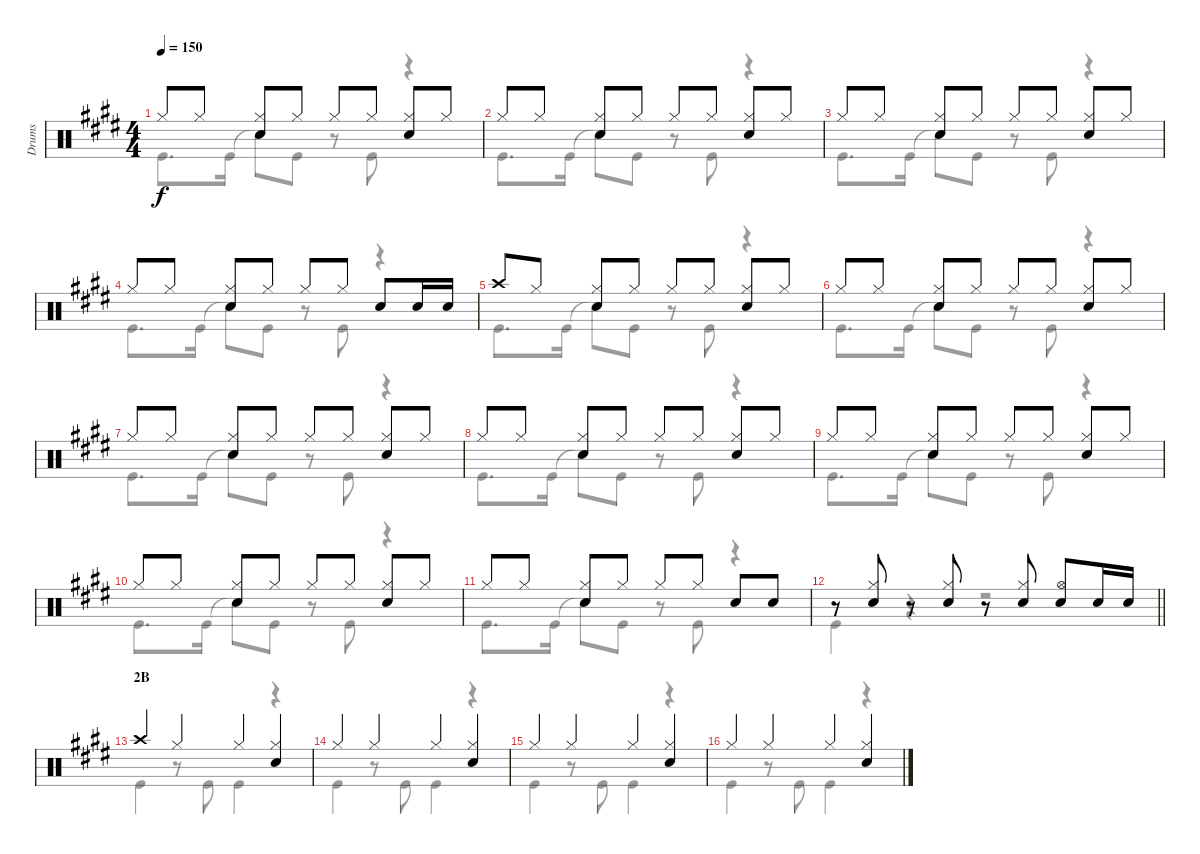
\track ("Drums" "Drums") {instrument percussion}
\staff {score}
\articulation defaults
\voice
\ts (4 4)
\tempo 150
\clef neutral
\ks e "Hi-Hat (closed)".8{dy f} "Hi-Hat (closed)".8
("Hi-Hat (closed)" "Snare (hit) 2").8 "Hi-Hat (closed)".8 "Hi-Hat (closed)".8 "Hi-Hat (closed)".8 ("Hi-Hat (closed)" "Snare (hit) 2").8 "Hi-Hat (closed)".8 |
"Hi-Hat (closed)".8 "Hi-Hat (closed)".8 ("Hi-Hat (closed)" "Snare (hit) 2").8 "Hi-Hat (closed)".8 "Hi-Hat (closed)".8 "Hi-Hat (closed)".8 ("Hi-Hat (closed)" "Snare (hit) 2").8 "Hi-Hat (closed)".8 |
"Hi-Hat (closed)".8 "Hi-Hat (closed)".8 ("Hi-Hat (closed)" "Snare (hit) 2").8 "Hi-Hat (closed)".8 "Hi-Hat (closed)".8 "Hi-Hat (closed)".8 ("Hi-Hat (closed)" "Snare (hit) 2").8 "Hi-Hat (closed)".8 |
"Hi-Hat (closed)".8 "Hi-Hat (closed)".8 ("Hi-Hat (closed)" "Snare (hit) 2").8 "Hi-Hat (closed)".8 "Hi-Hat (closed)".8 "Hi-Hat (closed)".8 "Snare (hit) 2".8 "Snare (hit) 2".16 "Snare (hit) 2".16 |
"Crash high (hit)".8 "Hi-Hat (closed)".8 ("Hi-Hat (closed)" "Snare (hit) 2").8 "Hi-Hat (closed)".8 "Hi-Hat (closed)".8 "Hi-Hat (closed)".8 ("Hi-Hat (closed)" "Snare (hit) 2").8 "Hi-Hat (closed)".8 |
"Hi-Hat (closed)".8 "Hi-Hat (closed)".8 ("Hi-Hat (closed)" "Snare (hit) 2").8 "Hi-Hat (closed)".8 "Hi-Hat (closed)".8 "Hi-Hat (closed)".8 ("Hi-Hat (closed)" "Snare (hit) 2").8 "Hi-Hat (closed)".8 |
"Hi-Hat (closed)".8 "Hi-Hat (closed)".8 ("Hi-Hat (closed)" "Snare (hit) 2").8 "Hi-Hat (closed)".8 "Hi-Hat (closed)".8 "Hi-Hat (closed)".8 ("Hi-Hat (closed)" "Snare (hit) 2").8 "Hi-Hat (closed)".8 |
"Hi-Hat (closed)".8 "Hi-Hat (closed)".8 ("Hi-Hat (closed)" "Snare (hit) 2").8 "Hi-Hat (closed)".8 "Hi-Hat (closed)".8 "Hi-Hat (closed)".8 ("Hi-Hat (closed)" "Snare (hit) 2").8 "Hi-Hat (closed)".8 |
"Hi-Hat (closed)".8 "Hi-Hat (closed)".8 ("Hi-Hat (closed)" "Snare (hit) 2").8 "Hi-Hat (closed)".8 "Hi-Hat (closed)".8 "Hi-Hat (closed)".8 ("Hi-Hat (closed)" "Snare (hit) 2").8 "Hi-Hat (closed)".8 |
"Hi-Hat (closed)".8 "Hi-Hat (closed)".8 ("Hi-Hat (closed)" "Snare (hit) 2").8 "Hi-Hat (closed)".8 "Hi-Hat (closed)".8 "Hi-Hat (closed)".8 ("Hi-Hat (closed)" "Snare (hit) 2").8 "Hi-Hat (closed)".8 |
"Hi-Hat (closed)".8 "Hi-Hat (closed)".8 ("Hi-Hat (closed)" "Snare (hit) 2").8 "Hi-Hat (closed)".8 "Hi-Hat (closed)".8 "Hi-Hat (closed)".8 "Snare (hit) 2".8 "Snare (hit) 2".8 |
\barLineRight lightlight
r.8 ("Hi-Hat (closed)" "Snare (hit) 2").8 r.8 ("Hi-Hat (closed)" "Snare (hit) 2").8 r.8 ("Hi-Hat (closed)" "Snare (hit) 2").8 ("Hi-Hat (open)" "Snare (hit) 2").8 "Snare (hit) 2".16 "Snare (hit) 2".16 |
\section ("" "2B")
"Crash high (hit)".4 "Hi-Hat (closed)".4 "Hi-Hat (closed)".4 ("Hi-Hat (closed)" "Snare (hit) 2").4 |
"Hi-Hat (closed)".4 "Hi-Hat (closed)".4 "Hi-Hat (closed)".4 ("Hi-Hat (closed)" "Snare (hit) 2").4 |
"Hi-Hat (closed)".4 "Hi-Hat (closed)".4 "Hi-Hat (closed)".4 ("Hi-Hat (closed)" "Snare (hit) 2").4 |
"Hi-Hat (closed)".4 "Hi-Hat (closed)".4 "Hi-Hat (closed)".4 ("Hi-Hat (closed)" "Snare (hit) 2").4
\voice
\clef neutral
\ottava regular
\simile none
\ks e "Kick (hit)".8{d dy f} "Kick (hit)".16 "Snare (hit)"{t}.8 "Kick (hit)".8
r.8 "Kick (hit)".8 r.4 |
"Kick (hit)".8{d} "Kick (hit)".16 "Snare (hit)"{t}.8 "Kick (hit)".8 r.8 "Kick (hit)".8 r.4 |
"Kick (hit)".8{d} "Kick (hit)".16 "Snare (hit)"{t}.8 "Kick (hit)".8 r.8 "Kick (hit)".8 r.4 |
"Kick (hit)".8{d} "Kick (hit)".16 "Snare (hit)"{t}.8 "Kick (hit)".8 r.8 "Kick (hit)".8 r.4 |
"Kick (hit)".8{d} "Kick (hit)".16 "Snare (hit)"{t}.8 "Kick (hit)".8 r.8 "Kick (hit)".8 r.4 |
"Kick (hit)".8{d} "Kick (hit)".16 "Snare (hit)"{t}.8 "Kick (hit)".8 r.8 "Kick (hit)".8 r.4 |
"Kick (hit)".8{d} "Kick (hit)".16 "Snare (hit)"{t}.8 "Kick (hit)".8 r.8 "Kick (hit)".8 r.4 |
"Kick (hit)".8{d} "Kick (hit)".16 "Snare (hit)"{t}.8 "Kick (hit)".8 r.8 "Kick (hit)".8 r.4 |
"Kick (hit)".8{d} "Kick (hit)".16 "Snare (hit)"{t}.8 "Kick (hit)".8 r.8 "Kick (hit)".8 r.4 |
"Kick (hit)".8{d} "Kick (hit)".16 "Snare (hit)"{t}.8 "Kick (hit)".8 r.8 "Kick (hit)".8 r.4 |
"Kick (hit)".8{d} "Kick (hit)".16 "Snare (hit)"{t}.8 "Kick (hit)".8 r.8 "Kick (hit)".8 r.4 |
\barLineRight lightlight "Kick (hit)".4
r.4 r.2 |
"Kick (hit)".4 r.8 "Kick (hit)".8 "Kick (hit)".4 r.4 |
"Kick (hit)".4 r.8 "Kick (hit)".8 "Kick (hit)".4 r.4 |
"Kick (hit)".4 r.8 "Kick (hit)".8 "Kick (hit)".4 r.4 |
"Kick (hit)".4 r.8 "Kick (hit)".8 "Kick (hit)".4 r.4
